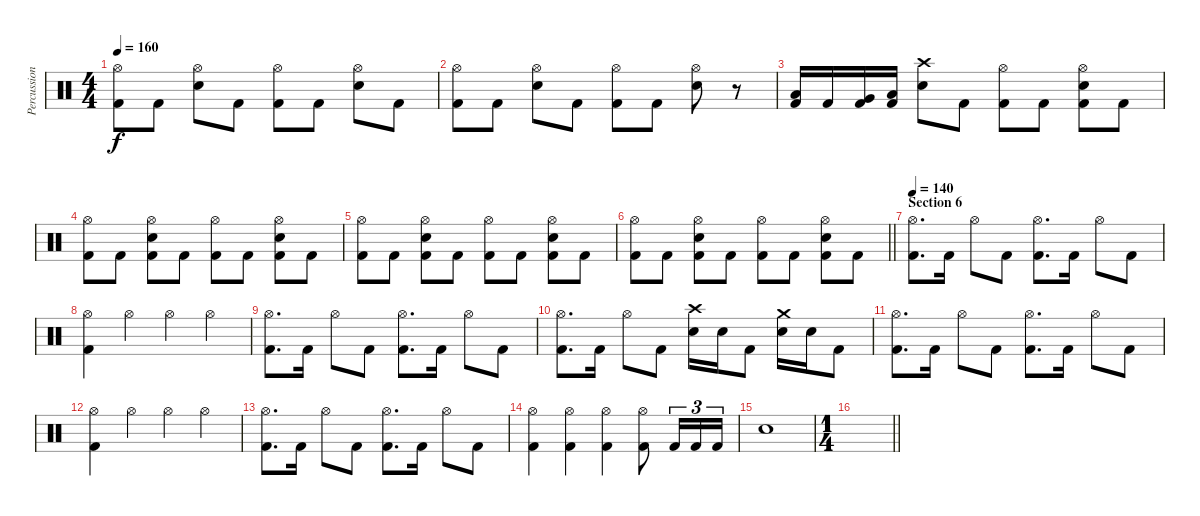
\track ("Percussion" "Percussion") {instrument percussion}
\staff {score}
\articulation defaults
\ts (4 4)
\tempo 160
\clef neutral
\ks c
("Hi-Hat (open)" "Kick (hit) 2").8{dy f} "Kick (hit) 2".8 ("Hi-Hat (open)" "Electric Snare (hit)").8 "Kick (hit) 2".8 ("Hi-Hat (open)" "Kick (hit) 2").8 "Kick (hit) 2".8 ("Hi-Hat (open)" "Electric Snare (hit)").8 "Kick (hit) 2".8 |
("Hi-Hat (open)" "Kick (hit) 2").8 "Kick (hit) 2".8 ("Hi-Hat (open)" "Electric Snare (hit)").8 "Kick (hit) 2".8 ("Hi-Hat (open)" "Kick (hit) 2").8 "Kick (hit) 2".8 ("Hi-Hat (open)" "Electric Snare (hit)").8 r.8 |
("Low Tom (hit)" "Kick (hit) 2").16 "Kick (hit) 2".16 ("Very Low Tom (hit)" "Kick (hit) 2").16 ("Low Floor Tom (hit)" "Kick (hit) 2").16 ("Crash high (hit)" "Electric Snare (hit)").8 "Kick (hit) 2".8 ("Hi-Hat (open)" "Kick (hit) 2").8 "Kick (hit) 2".8 ("Hi-Hat (open)" "Electric Snare (hit)" "Kick (hit) 2").8 "Kick (hit) 2".8 |
("Hi-Hat (open)" "Kick (hit) 2").8 "Kick (hit) 2".8 ("Hi-Hat (open)" "Electric Snare (hit)" "Kick (hit) 2").8 "Kick (hit) 2".8 ("Hi-Hat (open)" "Kick (hit) 2").8 "Kick (hit) 2".8 ("Hi-Hat (open)" "Electric Snare (hit)" "Kick (hit) 2").8 "Kick (hit) 2".8 |
("Hi-Hat (open)" "Kick (hit) 2").8 "Kick (hit) 2".8 ("Hi-Hat (open)" "Electric Snare (hit)" "Kick (hit) 2").8 "Kick (hit) 2".8 ("Hi-Hat (open)" "Kick (hit) 2").8 "Kick (hit) 2".8 ("Hi-Hat (open)" "Electric Snare (hit)" "Kick (hit) 2").8 "Kick (hit) 2".8 |
\barLineRight lightlight
("Hi-Hat (open)" "Kick (hit) 2").8 "Kick (hit) 2".8 ("Hi-Hat (open)" "Electric Snare (hit)" "Kick (hit) 2").8 "Kick (hit) 2".8 ("Hi-Hat (open)" "Kick (hit) 2").8 "Kick (hit) 2".8 ("Hi-Hat (open)" "Electric Snare (hit)" "Kick (hit) 2").8 "Kick (hit) 2".8 |
\section ("" "Section 6")
\tempo 140
("Hi-Hat (open)" "Kick (hit) 2").8{d} "Kick (hit) 2".16 "Hi-Hat (open)".8 "Kick (hit) 2".8 ("Hi-Hat (open)" "Kick (hit) 2").8{d} "Kick (hit) 2".16 "Hi-Hat (open)".8 "Kick (hit) 2".8 |
("Hi-Hat (open)" "Kick (hit) 2").4 "Hi-Hat (open)".4 "Hi-Hat (open)".4 "Hi-Hat (open)".4 |
("Hi-Hat (open)" "Kick (hit) 2").8{d} "Kick (hit) 2".16 "Hi-Hat (open)".8 "Kick (hit) 2".8 ("Hi-Hat (open)" "Kick (hit) 2").8{d} "Kick (hit) 2".16 "Hi-Hat (open)".8 "Kick (hit) 2".8 |
("Hi-Hat (open)" "Kick (hit) 2").8{d} "Kick (hit) 2".16 "Hi-Hat (open)".8 "Kick (hit) 2".8 ("Crash high (hit)" "Electric Snare (hit)").16 "Electric Snare (hit)".16 "Kick (hit) 2".8 ("Crash medium (hit)" "Electric Snare (hit)").16 "Electric Snare (hit)".16 "Kick (hit) 2".8 |
("Hi-Hat (open)" "Kick (hit) 2").8{d} "Kick (hit) 2".16 "Hi-Hat (open)".8 "Kick (hit) 2".8 ("Hi-Hat (open)" "Kick (hit) 2").8{d} "Kick (hit) 2".16 "Hi-Hat (open)".8 "Kick (hit) 2".8 |
("Hi-Hat (open)" "Kick (hit) 2").4 "Hi-Hat (open)".4 "Hi-Hat (open)".4 "Hi-Hat (open)".4 |
("Hi-Hat (open)" "Kick (hit) 2").8{d} "Kick (hit) 2".16 "Hi-Hat (open)".8 "Kick (hit) 2".8 ("Hi-Hat (open)" "Kick (hit) 2").8{d} "Kick (hit) 2".16 "Hi-Hat (open)".8 "Kick (hit) 2".8 |
("Hi-Hat (open)" "Kick (hit) 2").4 ("Hi-Hat (open)" "Kick (hit) 2").4 ("Hi-Hat (open)" "Kick (hit) 2").4 ("Hi-Hat (open)" "Kick (hit) 2").8 "Kick (hit) 2".16{tu (3 2)} "Kick (hit) 2".16{tu (3 2)} "Kick (hit) 2".16{tu (3 2)} |
"Electric Snare (hit)".1 |
\ts (1 4)
\barLineRight lightlight
